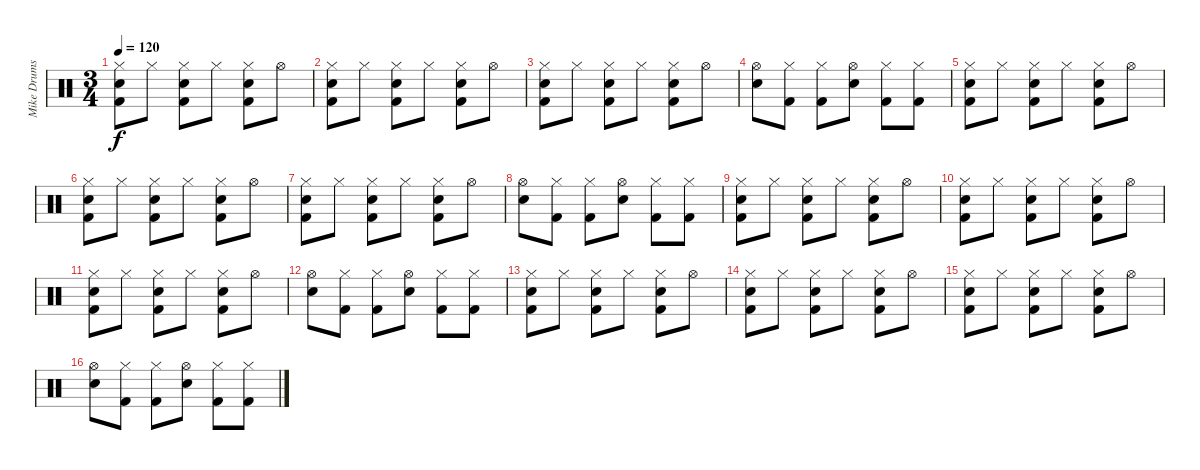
\track ("Mike Drums" "Mike Drums") {instrument percussion}
\staff {score}
\articulation defaults
\ts (3 4)
\tempo 120
\clef neutral
\ks c
("Hi-Hat (closed)" "Snare (hit) 2" "Kick (hit) 2").8{dy f} "Hi-Hat (closed)".8 ("Hi-Hat (closed)" "Snare (hit) 2" "Kick (hit) 2").8 "Hi-Hat (closed)".8 ("Hi-Hat (closed)" "Snare (hit) 2" "Kick (hit) 2").8 "Hi-Hat (open)".8 |
("Hi-Hat (closed)" "Snare (hit) 2" "Kick (hit) 2").8 "Hi-Hat (closed)".8 ("Hi-Hat (closed)" "Snare (hit) 2" "Kick (hit) 2").8 "Hi-Hat (closed)".8 ("Hi-Hat (closed)" "Snare (hit) 2" "Kick (hit) 2").8 "Hi-Hat (open)".8 |
("Hi-Hat (closed)" "Snare (hit) 2" "Kick (hit) 2").8 "Hi-Hat (closed)".8 ("Hi-Hat (closed)" "Snare (hit) 2" "Kick (hit) 2").8 "Hi-Hat (closed)".8 ("Hi-Hat (closed)" "Snare (hit) 2" "Kick (hit) 2").8 "Hi-Hat (open)".8 |
("Hi-Hat (open)" "Electric Snare (hit)").8 ("Hi-Hat (closed)" "Kick (hit) 2").8 ("Hi-Hat (closed)" "Kick (hit) 2").8 ("Hi-Hat (open)" "Electric Snare (hit)").8 ("Hi-Hat (closed)" "Kick (hit) 2").8 ("Hi-Hat (closed)" "Kick (hit) 2").8 |
("Hi-Hat (closed)" "Snare (hit) 2" "Kick (hit) 2").8 "Hi-Hat (closed)".8 ("Hi-Hat (closed)" "Snare (hit) 2" "Kick (hit) 2").8 "Hi-Hat (closed)".8 ("Hi-Hat (closed)" "Snare (hit) 2" "Kick (hit) 2").8 "Hi-Hat (open)".8 |
("Hi-Hat (closed)" "Snare (hit) 2" "Kick (hit) 2").8 "Hi-Hat (closed)".8 ("Hi-Hat (closed)" "Snare (hit) 2" "Kick (hit) 2").8 "Hi-Hat (closed)".8 ("Hi-Hat (closed)" "Snare (hit) 2" "Kick (hit) 2").8 "Hi-Hat (open)".8 |
("Hi-Hat (closed)" "Snare (hit) 2" "Kick (hit) 2").8 "Hi-Hat (closed)".8 ("Hi-Hat (closed)" "Snare (hit) 2" "Kick (hit) 2").8 "Hi-Hat (closed)".8 ("Hi-Hat (closed)" "Snare (hit) 2" "Kick (hit) 2").8 "Hi-Hat (open)".8 |
("Hi-Hat (open)" "Electric Snare (hit)").8 ("Hi-Hat (closed)" "Kick (hit) 2").8 ("Hi-Hat (closed)" "Kick (hit) 2").8 ("Hi-Hat (open)" "Electric Snare (hit)").8 ("Hi-Hat (closed)" "Kick (hit) 2").8 ("Hi-Hat (closed)" "Kick (hit) 2").8 |
("Hi-Hat (closed)" "Snare (hit) 2" "Kick (hit) 2").8 "Hi-Hat (closed)".8 ("Hi-Hat (closed)" "Snare (hit) 2" "Kick (hit) 2").8 "Hi-Hat (closed)".8 ("Hi-Hat (closed)" "Snare (hit) 2" "Kick (hit) 2").8 "Hi-Hat (open)".8 |
("Hi-Hat (closed)" "Snare (hit) 2" "Kick (hit) 2").8 "Hi-Hat (closed)".8 ("Hi-Hat (closed)" "Snare (hit) 2" "Kick (hit) 2").8 "Hi-Hat (closed)".8 ("Hi-Hat (closed)" "Snare (hit) 2" "Kick (hit) 2").8 "Hi-Hat (open)".8 |
("Hi-Hat (closed)" "Snare (hit) 2" "Kick (hit) 2").8 "Hi-Hat (closed)".8 ("Hi-Hat (closed)" "Snare (hit) 2" "Kick (hit) 2").8 "Hi-Hat (closed)".8 ("Hi-Hat (closed)" "Snare (hit) 2" "Kick (hit) 2").8 "Hi-Hat (open)".8 |
("Hi-Hat (open)" "Electric Snare (hit)").8 ("Hi-Hat (closed)" "Kick (hit) 2").8 ("Hi-Hat (closed)" "Kick (hit) 2").8 ("Hi-Hat (open)" "Electric Snare (hit)").8 ("Hi-Hat (closed)" "Kick (hit) 2").8 ("Hi-Hat (closed)" "Kick (hit) 2").8 |
("Hi-Hat (closed)" "Snare (hit) 2" "Kick (hit) 2").8 "Hi-Hat (closed)".8 ("Hi-Hat (closed)" "Snare (hit) 2" "Kick (hit) 2").8 "Hi-Hat (closed)".8 ("Hi-Hat (closed)" "Snare (hit) 2" "Kick (hit) 2").8 "Hi-Hat (open)".8 |
("Hi-Hat (closed)" "Snare (hit) 2" "Kick (hit) 2").8 "Hi-Hat (closed)".8 ("Hi-Hat (closed)" "Snare (hit) 2" "Kick (hit) 2").8 "Hi-Hat (closed)".8 ("Hi-Hat (closed)" "Snare (hit) 2" "Kick (hit) 2").8 "Hi-Hat (open)".8 |
("Hi-Hat (closed)" "Snare (hit) 2" "Kick (hit) 2").8 "Hi-Hat (closed)".8 ("Hi-Hat (closed)" "Snare (hit) 2" "Kick (hit) 2").8 "Hi-Hat (closed)".8 ("Hi-Hat (closed)" "Snare (hit) 2" "Kick (hit) 2").8 "Hi-Hat (open)".8 |
("Hi-Hat (open)" "Electric Snare (hit)").8 ("Hi-Hat (closed)" "Kick (hit) 2").8 ("Hi-Hat (closed)" "Kick (hit) 2").8 ("Hi-Hat (open)" "Electric Snare (hit)").8 ("Hi-Hat (closed)" "Kick (hit) 2").8 ("Hi-Hat (closed)" "Kick (hit) 2").8
